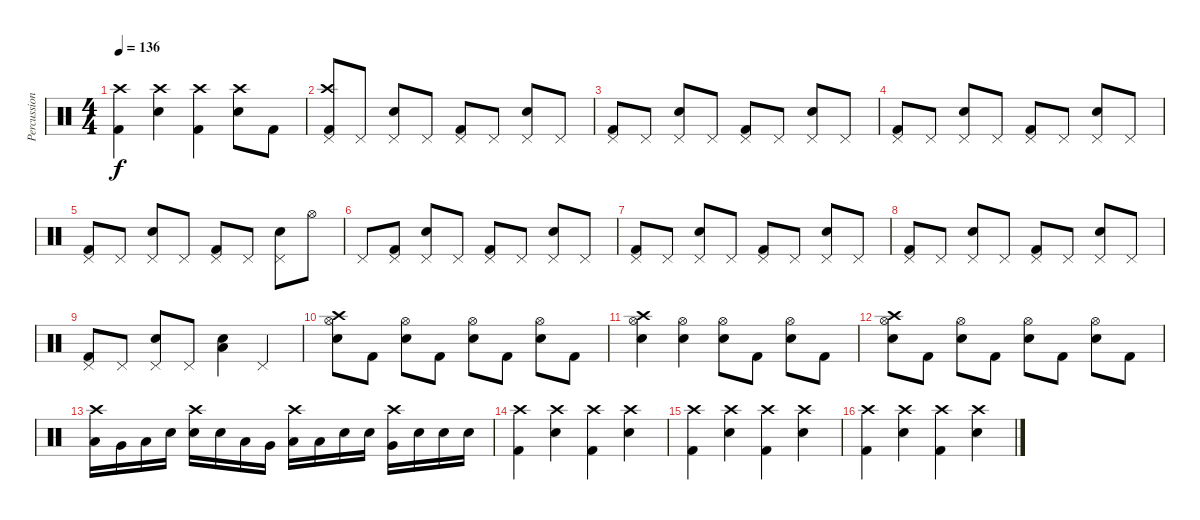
\track ("Percussion" "Percussion") {instrument percussion}
\staff {score}
\articulation defaults
\ts (4 4)
\tempo 136
\clef neutral
\ks c
("Kick (hit) 2" "Crash high (hit)").4{dy f} ("Snare (hit) 2" "Crash high (hit)").4 ("Kick (hit) 2" "Crash high (hit)").4 ("Snare (hit) 2" "Crash high (hit)").8 "Kick (hit) 2".8 |
("Kick (hit) 2" "Pedal Hi-Hat (hit)" "Crash high (hit)").8 "Pedal Hi-Hat (hit)".8 ("Snare (hit) 2" "Pedal Hi-Hat (hit)").8 "Pedal Hi-Hat (hit)".8 ("Kick (hit) 2" "Pedal Hi-Hat (hit)").8 "Pedal Hi-Hat (hit)".8 ("Snare (hit) 2" "Pedal Hi-Hat (hit)").8 "Pedal Hi-Hat (hit)".8 |
("Kick (hit) 2" "Pedal Hi-Hat (hit)").8 "Pedal Hi-Hat (hit)".8 ("Snare (hit) 2" "Pedal Hi-Hat (hit)").8 "Pedal Hi-Hat (hit)".8 ("Kick (hit) 2" "Pedal Hi-Hat (hit)").8 "Pedal Hi-Hat (hit)".8 ("Snare (hit) 2" "Pedal Hi-Hat (hit)").8 "Pedal Hi-Hat (hit)".8 |
("Kick (hit) 2" "Pedal Hi-Hat (hit)").8 "Pedal Hi-Hat (hit)".8 ("Snare (hit) 2" "Pedal Hi-Hat (hit)").8 "Pedal Hi-Hat (hit)".8 ("Kick (hit) 2" "Pedal Hi-Hat (hit)").8 "Pedal Hi-Hat (hit)".8 ("Snare (hit) 2" "Pedal Hi-Hat (hit)").8 "Pedal Hi-Hat (hit)".8 |
("Kick (hit) 2" "Pedal Hi-Hat (hit)").8 "Pedal Hi-Hat (hit)".8 ("Snare (hit) 2" "Pedal Hi-Hat (hit)").8 "Pedal Hi-Hat (hit)".8 ("Kick (hit) 2" "Pedal Hi-Hat (hit)").8 "Pedal Hi-Hat (hit)".8 ("Snare (hit) 2" "Pedal Hi-Hat (hit)").8 "Hi-Hat (open)".8 |
"Pedal Hi-Hat (hit)".8 ("Kick (hit) 2" "Pedal Hi-Hat (hit)").8 ("Snare (hit) 2" "Pedal Hi-Hat (hit)").8 "Pedal Hi-Hat (hit)".8 ("Kick (hit) 2" "Pedal Hi-Hat (hit)").8 "Pedal Hi-Hat (hit)".8 ("Snare (hit) 2" "Pedal Hi-Hat (hit)").8 "Pedal Hi-Hat (hit)".8 |
("Kick (hit) 2" "Pedal Hi-Hat (hit)").8 "Pedal Hi-Hat (hit)".8 ("Snare (hit) 2" "Pedal Hi-Hat (hit)").8 "Pedal Hi-Hat (hit)".8 ("Kick (hit) 2" "Pedal Hi-Hat (hit)").8 "Pedal Hi-Hat (hit)".8 ("Snare (hit) 2" "Pedal Hi-Hat (hit)").8 "Pedal Hi-Hat (hit)".8 |
("Kick (hit) 2" "Pedal Hi-Hat (hit)").8 "Pedal Hi-Hat (hit)".8 ("Snare (hit) 2" "Pedal Hi-Hat (hit)").8 "Pedal Hi-Hat (hit)".8 ("Kick (hit) 2" "Pedal Hi-Hat (hit)").8 "Pedal Hi-Hat (hit)".8 ("Snare (hit) 2" "Pedal Hi-Hat (hit)").8 "Pedal Hi-Hat (hit)".8 |
("Kick (hit) 2" "Pedal Hi-Hat (hit)").8 "Pedal Hi-Hat (hit)".8 ("Snare (hit) 2" "Pedal Hi-Hat (hit)").8 "Pedal Hi-Hat (hit)".8 ("Snare (hit) 2" "Low Tom (hit)").4 "Pedal Hi-Hat (hit)".4 |
("Snare (hit) 2" "Hi-Hat (open)" "Crash high (hit)").8 "Kick (hit) 2".8 ("Snare (hit) 2" "Hi-Hat (open)").8 "Kick (hit) 2".8 ("Snare (hit) 2" "Hi-Hat (open)").8 "Kick (hit) 2".8 ("Snare (hit) 2" "Hi-Hat (open)").8 "Kick (hit) 2".8 |
("Snare (hit) 2" "Hi-Hat (open)" "Crash high (hit)").4 ("Snare (hit) 2" "Hi-Hat (open)").4 ("Snare (hit) 2" "Hi-Hat (open)").8 "Kick (hit) 2".8 ("Snare (hit) 2" "Hi-Hat (open)").8 "Kick (hit) 2".8 |
("Snare (hit) 2" "Hi-Hat (open)" "Crash high (hit)").8 "Kick (hit) 2".8 ("Snare (hit) 2" "Hi-Hat (open)").8 "Kick (hit) 2".8 ("Snare (hit) 2" "Hi-Hat (open)").8 "Kick (hit) 2".8 ("Snare (hit) 2" "Hi-Hat (open)").8 "Kick (hit) 2".8 |
("Low Tom (hit)" "Crash high (hit)").16 "Very Low Tom (hit)".16 "Low Floor Tom (hit)".16 "Snare (hit) 2".16 ("Snare (hit) 2" "Crash high (hit)").16 "Snare (hit) 2".16 "Low Tom (hit)".16 "Very Low Tom (hit)".16 ("Low Floor Tom (hit)" "Crash high (hit)").16 "Low Floor Tom (hit)".16 "Snare (hit) 2".16 "Snare (hit) 2".16 ("Very Low Tom (hit)" "Crash high (hit)").16 "Snare (hit) 2".16 "Snare (hit) 2".16 "Snare (hit) 2".16 |
("Kick (hit) 2" "Crash high (hit)").4 ("Snare (hit) 2" "Crash high (hit)").4 ("Kick (hit) 2" "Crash high (hit)").4 ("Snare (hit) 2" "Crash high (hit)").4 |
("Kick (hit) 2" "Crash high (hit)").4 ("Snare (hit) 2" "Crash high (hit)").4 ("Kick (hit) 2" "Crash high (hit)").4 ("Snare (hit) 2" "Crash high (hit)").4 |
("Kick (hit) 2" "Crash high (hit)").4 ("Snare (hit) 2" "Crash high (hit)").4 ("Kick (hit) 2" "Crash high (hit)").4 ("Snare (hit) 2" "Crash high (hit)").4
